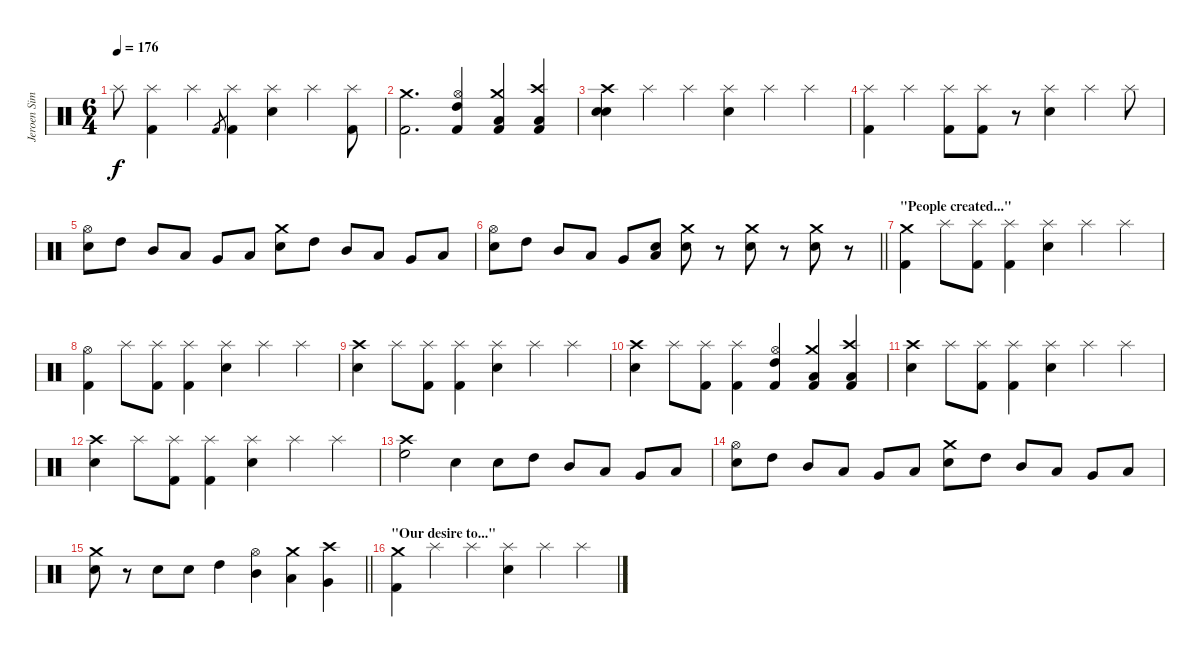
\track ("Jeroen Simons" "Jeroen Sim") {instrument percussion}
\staff {score}
\articulation defaults
\ts (6 4)
\tempo 176
\clef neutral
\ks c "Splash (hit)"{t}.8{dy f}
("Splash (hit)" "Kick (hit) 2").4 "Splash (hit)".4 "Kick (hit) 2".8{gr} ("Splash (hit)" "Kick (hit) 2").4 ("Splash (hit)" "Electric Snare (hit)").4 "Splash (hit)".4 ("Splash (hit)" "Kick (hit) 2").8 |
("Crash medium (hit)" "Kick (hit) 2").2{d} ("Hi-Hat (open)" "High Tom (hit)" "Kick (hit) 2").4 ("Crash medium (hit)" "Low Tom (hit)" "Kick (hit) 2").4 ("Crash high (hit)" "Low Floor Tom (hit)" "Kick (hit) 2").4 |
("Crash high (hit)" "Electric Snare (hit)" "Snare (hit) 2").4 "Splash (hit)".4 "Splash (hit)".4 ("Splash (hit)" "Electric Snare (hit)").4 "Splash (hit)".4 "Splash (hit)".4 |
("Splash (hit)" "Kick (hit) 2").4 "Splash (hit)".4 ("Splash (hit)" "Kick (hit) 2").8 ("Splash (hit)" "Kick (hit) 2").8 r.8 ("Splash (hit)" "Electric Snare (hit)").4 "Splash (hit)".4 "Splash (hit)".8 |
("Hi-Hat (open)" "Snare (hit) 2").8 "High Tom (hit)".8 "Mid Tom (hit)".8 "Low Tom (hit)".8 "Very Low Tom (hit)".8 "Low Floor Tom (hit)".8 ("Crash medium (hit)" "Snare (hit) 2").8 "High Tom (hit)".8 "Mid Tom (hit)".8 "Low Tom (hit)".8 "Very Low Tom (hit)".8 "Low Floor Tom (hit)".8 |
\barLineRight lightlight
("Hi-Hat (open)" "Snare (hit) 2").8 "High Tom (hit)".8 "Mid Tom (hit)".8 "Low Tom (hit)".8 "Very Low Tom (hit)".8 ("Low Floor Tom (hit)" "Snare (hit) 2").8 ("Crash medium (hit)" "Snare (hit) 2").8 r.8 ("Crash medium (hit)" "Snare (hit) 2").8 r.8 ("Crash medium (hit)" "Snare (hit) 2").8 r.8 |
\section ("" "\"People created...\"")
("Crash medium (hit)" "Kick (hit) 2").4 "Splash (hit)".8 ("Splash (hit)" "Kick (hit) 2").8 ("Splash (hit)" "Kick (hit) 2").4 ("Splash (hit)" "Electric Snare (hit)").4 "Splash (hit)".4 "Splash (hit)".4 |
("Hi-Hat (open)" "Kick (hit) 2").4 "Splash (hit)".8 ("Splash (hit)" "Kick (hit) 2").8 ("Splash (hit)" "Kick (hit) 2").4 ("Splash (hit)" "Electric Snare (hit)").4 "Splash (hit)".4 "Splash (hit)".4 |
("Crash high (hit)" "Snare (hit) 2").4 "Splash (hit)".8 ("Splash (hit)" "Kick (hit) 2").8 ("Splash (hit)" "Kick (hit) 2").4 ("Splash (hit)" "Electric Snare (hit)").4 "Splash (hit)".4 "Splash (hit)".4 |
("Crash high (hit)" "Snare (hit) 2").4 "Splash (hit)".8 ("Splash (hit)" "Kick (hit) 2").8 ("Splash (hit)" "Kick (hit) 2").4 ("Hi-Hat (open)" "High Tom (hit)" "Kick (hit) 2").4 ("Crash medium (hit)" "Low Tom (hit)" "Kick (hit) 2").4 ("Crash high (hit)" "Low Floor Tom (hit)" "Kick (hit) 2").4 |
("Crash high (hit)" "Snare (hit) 2").4 "Splash (hit)".8 ("Splash (hit)" "Kick (hit) 2").8 ("Splash (hit)" "Kick (hit) 2").4 ("Splash (hit)" "Electric Snare (hit)").4 "Splash (hit)".4 "Splash (hit)".4 |
("Crash high (hit)" "Snare (hit) 2").4 "Splash (hit)".8 ("Splash (hit)" "Kick (hit) 2").8 ("Splash (hit)" "Kick (hit) 2").4 ("Splash (hit)" "Electric Snare (hit)").4 "Splash (hit)".4 "Splash (hit)".4 |
("Crash high (hit)" "High Floor Tom (hit)").2 "Snare (hit) 2".4 "Electric Snare (hit)".8 "High Tom (hit)".8 "Mid Tom (hit)".8 "Low Tom (hit)".8 "Very Low Tom (hit)".8 "Low Floor Tom (hit)".8 |
("Hi-Hat (open)" "Snare (hit) 2").8 "High Tom (hit)".8 "Mid Tom (hit)".8 "Low Tom (hit)".8 "Very Low Tom (hit)".8 "Low Floor Tom (hit)".8 ("Crash medium (hit)" "Snare (hit) 2").8 "High Tom (hit)".8 "Mid Tom (hit)".8 "Low Tom (hit)".8 "Very Low Tom (hit)".8 "Low Floor Tom (hit)".8 |
\barLineRight lightlight
("Crash medium (hit)" "Snare (hit) 2").8 r.8 "Snare (hit) 2".8 "Snare (hit) 2".8 "High Tom (hit)".4 ("Hi-Hat (open)" "Mid Tom (hit)").4 ("Crash medium (hit)" "Low Tom (hit)").4 ("Crash high (hit)" "Very Low Tom (hit)").4 |
\section ("" "\"Our desire to...\"")
("Crash medium (hit)" "Kick (hit) 2").4 "Splash (hit)".4 "Splash (hit)".4 ("Splash (hit)" "Electric Snare (hit)").4 "Splash (hit)".4 "Splash (hit)".4
